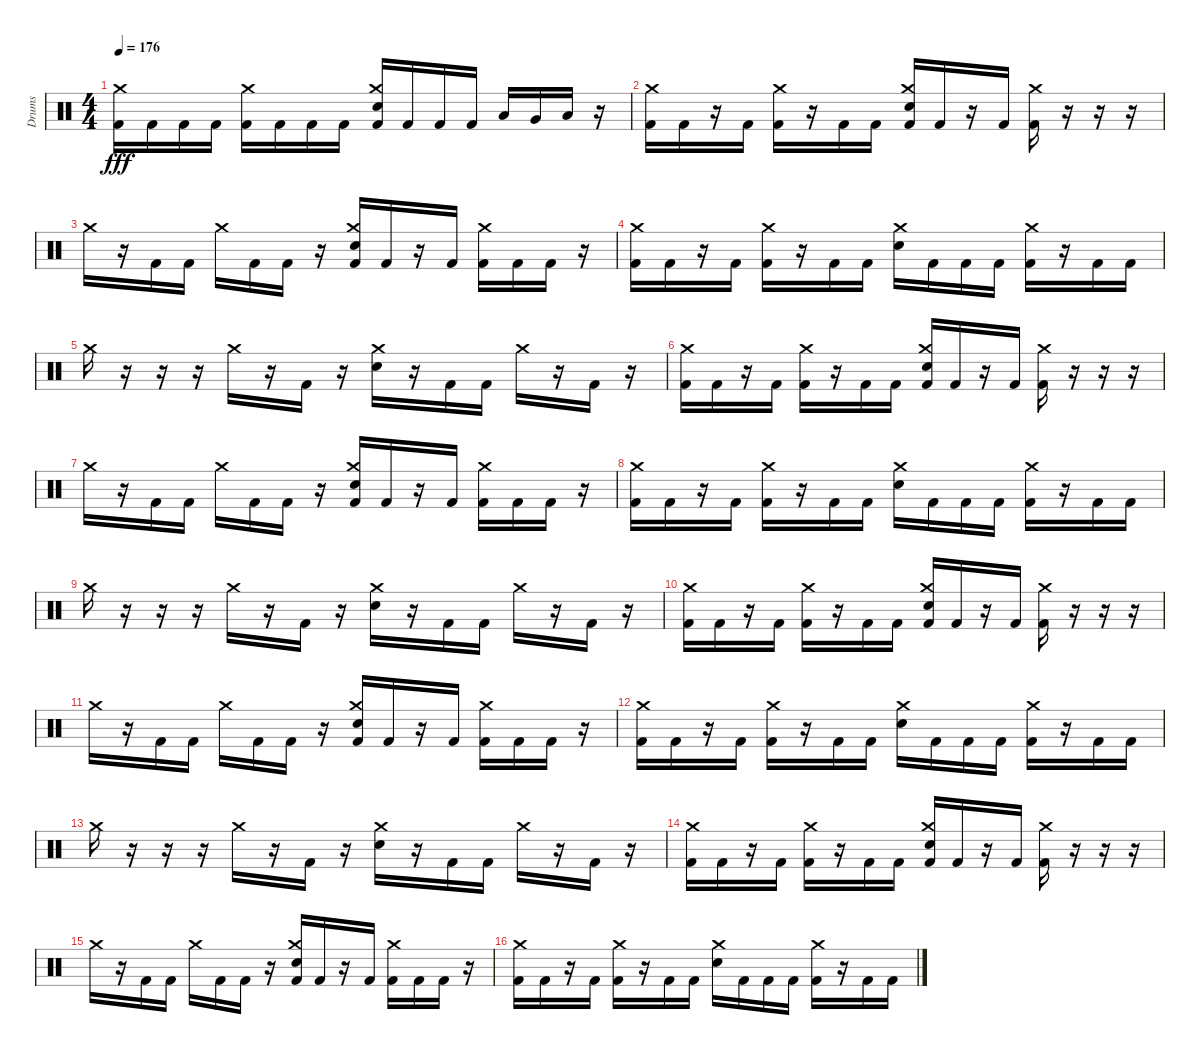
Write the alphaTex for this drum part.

\track ("Drums" "Drums") {instrument percussion}
\staff {score}
\articulation defaults
\ts (4 4)
\tempo 176
\clef neutral
\ks c
("Kick (hit) 2" "Crash medium (hit)").16{dy fff} "Kick (hit) 2".16 "Kick (hit) 2".16 "Kick (hit) 2".16 ("Kick (hit) 2" "Crash medium (hit)").16 "Kick (hit) 2".16 "Kick (hit) 2".16 "Kick (hit) 2".16 ("Crash medium (hit)" "Kick (hit) 2" "Electric Snare (hit)").16 "Kick (hit) 2".16 "Kick (hit) 2".16 "Kick (hit) 2".16 "Low Tom (hit)".16 "Very Low Tom (hit)".16 "Low Floor Tom (hit)".16 r.16 |
("Kick (hit) 2" "Crash medium (hit)").16 "Kick (hit) 2".16 r.16 "Kick (hit) 2".16 ("Kick (hit) 2" "Crash medium (hit)").16 r.16 "Kick (hit) 2".16 "Kick (hit) 2".16 ("Kick (hit) 2" "Crash medium (hit)" "Electric Snare (hit)").16 "Kick (hit) 2".16 r.16 "Kick (hit) 2".16 ("Kick (hit) 2" "Crash medium (hit)").16 r.16 r.16 r.16 |
"Crash medium (hit)".16 r.16 "Kick (hit) 2".16 "Kick (hit) 2".16 "Crash medium (hit)".16 "Kick (hit) 2".16 "Kick (hit) 2".16 r.16 ("Kick (hit) 2" "Crash medium (hit)" "Electric Snare (hit)").16 "Kick (hit) 2".16 r.16 "Kick (hit) 2".16 ("Kick (hit) 2" "Crash medium (hit)").16 "Kick (hit) 2".16 "Kick (hit) 2".16 r.16 |
("Kick (hit) 2" "Crash medium (hit)").16 "Kick (hit) 2".16 r.16 "Kick (hit) 2".16 ("Kick (hit) 2" "Crash medium (hit)").16 r.16 "Kick (hit) 2".16 "Kick (hit) 2".16 ("Crash medium (hit)" "Electric Snare (hit)").16 "Kick (hit) 2".16 "Kick (hit) 2".16 "Kick (hit) 2".16 ("Kick (hit) 2" "Crash medium (hit)").16 r.16 "Kick (hit) 2".16 "Kick (hit) 2".16 |
"Crash medium (hit)".16 r.16 r.16 r.16 "Crash medium (hit)".16 r.16 "Kick (hit) 2".16 r.16 ("Crash medium (hit)" "Electric Snare (hit)").16 r.16 "Kick (hit) 2".16 "Kick (hit) 2".16 "Crash medium (hit)".16 r.16 "Kick (hit) 2".16 r.16 |
("Kick (hit) 2" "Crash medium (hit)").16 "Kick (hit) 2".16 r.16 "Kick (hit) 2".16 ("Kick (hit) 2" "Crash medium (hit)").16 r.16 "Kick (hit) 2".16 "Kick (hit) 2".16 ("Kick (hit) 2" "Crash medium (hit)" "Electric Snare (hit)").16 "Kick (hit) 2".16 r.16 "Kick (hit) 2".16 ("Kick (hit) 2" "Crash medium (hit)").16 r.16 r.16 r.16 |
"Crash medium (hit)".16 r.16 "Kick (hit) 2".16 "Kick (hit) 2".16 "Crash medium (hit)".16 "Kick (hit) 2".16 "Kick (hit) 2".16 r.16 ("Kick (hit) 2" "Crash medium (hit)" "Electric Snare (hit)").16 "Kick (hit) 2".16 r.16 "Kick (hit) 2".16 ("Kick (hit) 2" "Crash medium (hit)").16 "Kick (hit) 2".16 "Kick (hit) 2".16 r.16 |
("Kick (hit) 2" "Crash medium (hit)").16 "Kick (hit) 2".16 r.16 "Kick (hit) 2".16 ("Kick (hit) 2" "Crash medium (hit)").16 r.16 "Kick (hit) 2".16 "Kick (hit) 2".16 ("Crash medium (hit)" "Electric Snare (hit)").16 "Kick (hit) 2".16 "Kick (hit) 2".16 "Kick (hit) 2".16 ("Kick (hit) 2" "Crash medium (hit)").16 r.16 "Kick (hit) 2".16 "Kick (hit) 2".16 |
"Crash medium (hit)".16 r.16 r.16 r.16 "Crash medium (hit)".16 r.16 "Kick (hit) 2".16 r.16 ("Crash medium (hit)" "Electric Snare (hit)").16 r.16 "Kick (hit) 2".16 "Kick (hit) 2".16 "Crash medium (hit)".16 r.16 "Kick (hit) 2".16 r.16 |
("Kick (hit) 2" "Crash medium (hit)").16 "Kick (hit) 2".16 r.16 "Kick (hit) 2".16 ("Kick (hit) 2" "Crash medium (hit)").16 r.16 "Kick (hit) 2".16 "Kick (hit) 2".16 ("Kick (hit) 2" "Crash medium (hit)" "Electric Snare (hit)").16 "Kick (hit) 2".16 r.16 "Kick (hit) 2".16 ("Kick (hit) 2" "Crash medium (hit)").16 r.16 r.16 r.16 |
"Crash medium (hit)".16 r.16 "Kick (hit) 2".16 "Kick (hit) 2".16 "Crash medium (hit)".16 "Kick (hit) 2".16 "Kick (hit) 2".16 r.16 ("Kick (hit) 2" "Crash medium (hit)" "Electric Snare (hit)").16 "Kick (hit) 2".16 r.16 "Kick (hit) 2".16 ("Kick (hit) 2" "Crash medium (hit)").16 "Kick (hit) 2".16 "Kick (hit) 2".16 r.16 |
("Kick (hit) 2" "Crash medium (hit)").16 "Kick (hit) 2".16 r.16 "Kick (hit) 2".16 ("Kick (hit) 2" "Crash medium (hit)").16 r.16 "Kick (hit) 2".16 "Kick (hit) 2".16 ("Crash medium (hit)" "Electric Snare (hit)").16 "Kick (hit) 2".16 "Kick (hit) 2".16 "Kick (hit) 2".16 ("Kick (hit) 2" "Crash medium (hit)").16 r.16 "Kick (hit) 2".16 "Kick (hit) 2".16 |
"Crash medium (hit)".16 r.16 r.16 r.16 "Crash medium (hit)".16 r.16 "Kick (hit) 2".16 r.16 ("Crash medium (hit)" "Electric Snare (hit)").16 r.16 "Kick (hit) 2".16 "Kick (hit) 2".16 "Crash medium (hit)".16 r.16 "Kick (hit) 2".16 r.16 |
("Kick (hit) 2" "Crash medium (hit)").16 "Kick (hit) 2".16 r.16 "Kick (hit) 2".16 ("Kick (hit) 2" "Crash medium (hit)").16 r.16 "Kick (hit) 2".16 "Kick (hit) 2".16 ("Kick (hit) 2" "Crash medium (hit)" "Electric Snare (hit)").16 "Kick (hit) 2".16 r.16 "Kick (hit) 2".16 ("Kick (hit) 2" "Crash medium (hit)").16 r.16 r.16 r.16 |
"Crash medium (hit)".16 r.16 "Kick (hit) 2".16 "Kick (hit) 2".16 "Crash medium (hit)".16 "Kick (hit) 2".16 "Kick (hit) 2".16 r.16 ("Kick (hit) 2" "Crash medium (hit)" "Electric Snare (hit)").16 "Kick (hit) 2".16 r.16 "Kick (hit) 2".16 ("Kick (hit) 2" "Crash medium (hit)").16 "Kick (hit) 2".16 "Kick (hit) 2".16 r.16 |
("Kick (hit) 2" "Crash medium (hit)").16 "Kick (hit) 2".16 r.16 "Kick (hit) 2".16 ("Kick (hit) 2" "Crash medium (hit)").16 r.16 "Kick (hit) 2".16 "Kick (hit) 2".16 ("Crash medium (hit)" "Electric Snare (hit)").16 "Kick (hit) 2".16 "Kick (hit) 2".16 "Kick (hit) 2".16 ("Kick (hit) 2" "Crash medium (hit)").16 r.16 "Kick (hit) 2".16 "Kick (hit) 2".16
